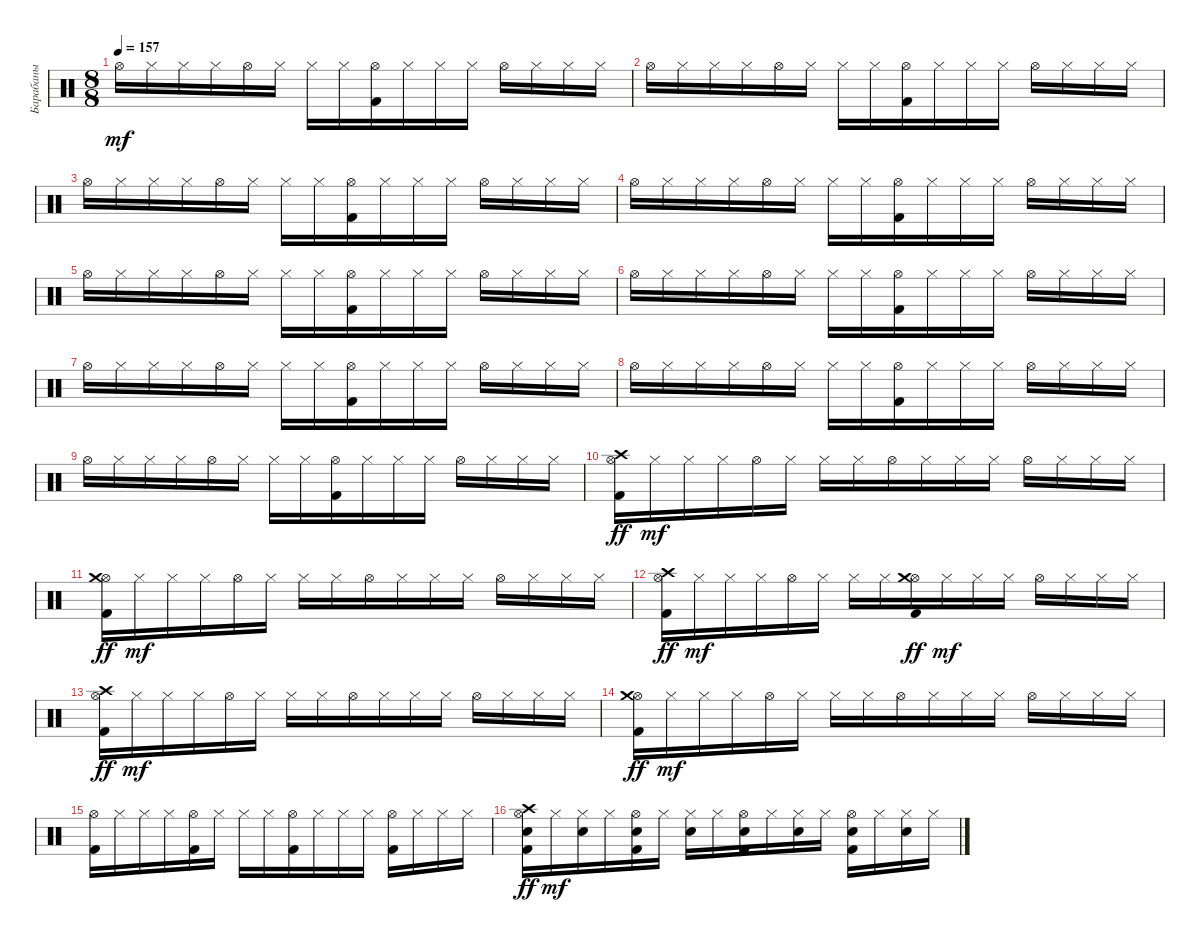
\track ("Барабаны" "Барабаны") {instrument percussion}
\staff {score}
\articulation defaults
\ts (8 8)
\tempo 157
\clef neutral
\ks c "Hi-Hat (open)".16{dy mf} "Hi-Hat (closed)".16 "Hi-Hat (closed)".16 "Hi-Hat (closed)".16 "Hi-Hat (open)".16 "Hi-Hat (closed)".16 "Hi-Hat (closed)".16 "Hi-Hat (closed)".16
("Kick (hit) 2" "Hi-Hat (open)").16 "Hi-Hat (closed)".16 "Hi-Hat (closed)".16 "Hi-Hat (closed)".16 "Hi-Hat (open)".16 "Hi-Hat (closed)".16 "Hi-Hat (closed)".16 "Hi-Hat (closed)".16 |
"Hi-Hat (open)".16 "Hi-Hat (closed)".16 "Hi-Hat (closed)".16 "Hi-Hat (closed)".16 "Hi-Hat (open)".16 "Hi-Hat (closed)".16 "Hi-Hat (closed)".16 "Hi-Hat (closed)".16 ("Kick (hit) 2" "Hi-Hat (open)").16 "Hi-Hat (closed)".16 "Hi-Hat (closed)".16 "Hi-Hat (closed)".16 "Hi-Hat (open)".16 "Hi-Hat (closed)".16 "Hi-Hat (closed)".16 "Hi-Hat (closed)".16 |
"Hi-Hat (open)".16 "Hi-Hat (closed)".16 "Hi-Hat (closed)".16 "Hi-Hat (closed)".16 "Hi-Hat (open)".16 "Hi-Hat (closed)".16 "Hi-Hat (closed)".16 "Hi-Hat (closed)".16 ("Kick (hit) 2" "Hi-Hat (open)").16 "Hi-Hat (closed)".16 "Hi-Hat (closed)".16 "Hi-Hat (closed)".16 "Hi-Hat (open)".16 "Hi-Hat (closed)".16 "Hi-Hat (closed)".16 "Hi-Hat (closed)".16 |
"Hi-Hat (open)".16 "Hi-Hat (closed)".16 "Hi-Hat (closed)".16 "Hi-Hat (closed)".16 "Hi-Hat (open)".16 "Hi-Hat (closed)".16 "Hi-Hat (closed)".16 "Hi-Hat (closed)".16 ("Kick (hit) 2" "Hi-Hat (open)").16 "Hi-Hat (closed)".16 "Hi-Hat (closed)".16 "Hi-Hat (closed)".16 "Hi-Hat (open)".16 "Hi-Hat (closed)".16 "Hi-Hat (closed)".16 "Hi-Hat (closed)".16 |
"Hi-Hat (open)".16 "Hi-Hat (closed)".16 "Hi-Hat (closed)".16 "Hi-Hat (closed)".16 "Hi-Hat (open)".16 "Hi-Hat (closed)".16 "Hi-Hat (closed)".16 "Hi-Hat (closed)".16 ("Kick (hit) 2" "Hi-Hat (open)").16 "Hi-Hat (closed)".16 "Hi-Hat (closed)".16 "Hi-Hat (closed)".16 "Hi-Hat (open)".16 "Hi-Hat (closed)".16 "Hi-Hat (closed)".16 "Hi-Hat (closed)".16 |
"Hi-Hat (open)".16 "Hi-Hat (closed)".16 "Hi-Hat (closed)".16 "Hi-Hat (closed)".16 "Hi-Hat (open)".16 "Hi-Hat (closed)".16 "Hi-Hat (closed)".16 "Hi-Hat (closed)".16 ("Kick (hit) 2" "Hi-Hat (open)").16 "Hi-Hat (closed)".16 "Hi-Hat (closed)".16 "Hi-Hat (closed)".16 "Hi-Hat (open)".16 "Hi-Hat (closed)".16 "Hi-Hat (closed)".16 "Hi-Hat (closed)".16 |
"Hi-Hat (open)".16 "Hi-Hat (closed)".16 "Hi-Hat (closed)".16 "Hi-Hat (closed)".16 "Hi-Hat (open)".16 "Hi-Hat (closed)".16 "Hi-Hat (closed)".16 "Hi-Hat (closed)".16 ("Kick (hit) 2" "Hi-Hat (open)").16 "Hi-Hat (closed)".16 "Hi-Hat (closed)".16 "Hi-Hat (closed)".16 "Hi-Hat (open)".16 "Hi-Hat (closed)".16 "Hi-Hat (closed)".16 "Hi-Hat (closed)".16 |
"Hi-Hat (open)".16 "Hi-Hat (closed)".16 "Hi-Hat (closed)".16 "Hi-Hat (closed)".16 "Hi-Hat (open)".16 "Hi-Hat (closed)".16 "Hi-Hat (closed)".16 "Hi-Hat (closed)".16 ("Kick (hit) 2" "Hi-Hat (open)").16 "Hi-Hat (closed)".16 "Hi-Hat (closed)".16 "Hi-Hat (closed)".16 "Hi-Hat (open)".16 "Hi-Hat (closed)".16 "Hi-Hat (closed)".16 "Hi-Hat (closed)".16 |
"Hi-Hat (open)".16 "Hi-Hat (closed)".16 "Hi-Hat (closed)".16 "Hi-Hat (closed)".16 "Hi-Hat (open)".16 "Hi-Hat (closed)".16 "Hi-Hat (closed)".16 "Hi-Hat (closed)".16 ("Kick (hit) 2" "Hi-Hat (open)").16 "Hi-Hat (closed)".16 "Hi-Hat (closed)".16 "Hi-Hat (closed)".16 "Hi-Hat (open)".16 "Hi-Hat (closed)".16 "Hi-Hat (closed)".16 "Hi-Hat (closed)".16 |
("Kick (hit) 2" "Hi-Hat (open)" "Crash high (hit)").16{dy ff} "Hi-Hat (closed)".16{dy mf} "Hi-Hat (closed)".16 "Hi-Hat (closed)".16 "Hi-Hat (open)".16 "Hi-Hat (closed)".16 "Hi-Hat (closed)".16 "Hi-Hat (closed)".16 "Hi-Hat (open)".16 "Hi-Hat (closed)".16 "Hi-Hat (closed)".16 "Hi-Hat (closed)".16 "Hi-Hat (open)".16 "Hi-Hat (closed)".16 "Hi-Hat (closed)".16 "Hi-Hat (closed)".16 |
("Kick (hit) 2" "Hi-Hat (open)" "Crash medium (hit)").16{dy ff} "Hi-Hat (closed)".16{dy mf} "Hi-Hat (closed)".16 "Hi-Hat (closed)".16 "Hi-Hat (open)".16 "Hi-Hat (closed)".16 "Hi-Hat (closed)".16 "Hi-Hat (closed)".16 "Hi-Hat (open)".16 "Hi-Hat (closed)".16 "Hi-Hat (closed)".16 "Hi-Hat (closed)".16 "Hi-Hat (open)".16 "Hi-Hat (closed)".16 "Hi-Hat (closed)".16 "Hi-Hat (closed)".16 |
("Kick (hit) 2" "Hi-Hat (open)" "Crash high (hit)").16{dy ff} "Hi-Hat (closed)".16{dy mf} "Hi-Hat (closed)".16 "Hi-Hat (closed)".16 "Hi-Hat (open)".16 "Hi-Hat (closed)".16 "Hi-Hat (closed)".16 "Hi-Hat (closed)".16 ("Kick (hit) 2" "Hi-Hat (open)" "Crash medium (hit)").16{dy ff} "Hi-Hat (closed)".16{dy mf} "Hi-Hat (closed)".16 "Hi-Hat (closed)".16 "Hi-Hat (open)".16 "Hi-Hat (closed)".16 "Hi-Hat (closed)".16 "Hi-Hat (closed)".16 |
("Kick (hit) 2" "Hi-Hat (open)" "Crash high (hit)").16{dy ff} "Hi-Hat (closed)".16{dy mf} "Hi-Hat (closed)".16 "Hi-Hat (closed)".16 "Hi-Hat (open)".16 "Hi-Hat (closed)".16 "Hi-Hat (closed)".16 "Hi-Hat (closed)".16 "Hi-Hat (open)".16 "Hi-Hat (closed)".16 "Hi-Hat (closed)".16 "Hi-Hat (closed)".16 "Hi-Hat (open)".16 "Hi-Hat (closed)".16 "Hi-Hat (closed)".16 "Hi-Hat (closed)".16 |
("Kick (hit) 2" "Hi-Hat (open)" "Crash medium (hit)").16{dy ff} "Hi-Hat (closed)".16{dy mf} "Hi-Hat (closed)".16 "Hi-Hat (closed)".16 "Hi-Hat (open)".16 "Hi-Hat (closed)".16 "Hi-Hat (closed)".16 "Hi-Hat (closed)".16 "Hi-Hat (open)".16 "Hi-Hat (closed)".16 "Hi-Hat (closed)".16 "Hi-Hat (closed)".16 "Hi-Hat (open)".16 "Hi-Hat (closed)".16 "Hi-Hat (closed)".16 "Hi-Hat (closed)".16 |
("Kick (hit) 2" "Hi-Hat (open)").16 "Hi-Hat (closed)".16 "Hi-Hat (closed)".16 "Hi-Hat (closed)".16 ("Kick (hit) 2" "Hi-Hat (open)").16 "Hi-Hat (closed)".16 "Hi-Hat (closed)".16 "Hi-Hat (closed)".16 ("Kick (hit) 2" "Hi-Hat (open)").16 "Hi-Hat (closed)".16 "Hi-Hat (closed)".16 "Hi-Hat (closed)".16 ("Kick (hit) 2" "Hi-Hat (open)").16 "Hi-Hat (closed)".16 "Hi-Hat (closed)".16 "Hi-Hat (closed)".16 |
("Kick (hit) 2" "Snare (hit) 2" "Hi-Hat (open)" "Crash high (hit)").16{dy ff} "Hi-Hat (closed)".16{dy mf} ("Snare (hit) 2" "Hi-Hat (closed)").16 "Hi-Hat (closed)".16 ("Kick (hit) 2" "Snare (hit) 2" "Hi-Hat (open)").16 "Hi-Hat (closed)".16 ("Snare (hit) 2" "Hi-Hat (closed)").16 "Hi-Hat (closed)".16 ("Kick (hit) 2" "Snare (hit) 2" "Hi-Hat (open)").16 "Hi-Hat (closed)".16 ("Snare (hit) 2" "Hi-Hat (closed)").16 "Hi-Hat (closed)".16 ("Kick (hit) 2" "Snare (hit) 2" "Hi-Hat (open)").16 "Hi-Hat (closed)".16 ("Snare (hit) 2" "Hi-Hat (closed)").16 "Hi-Hat (closed)".16
